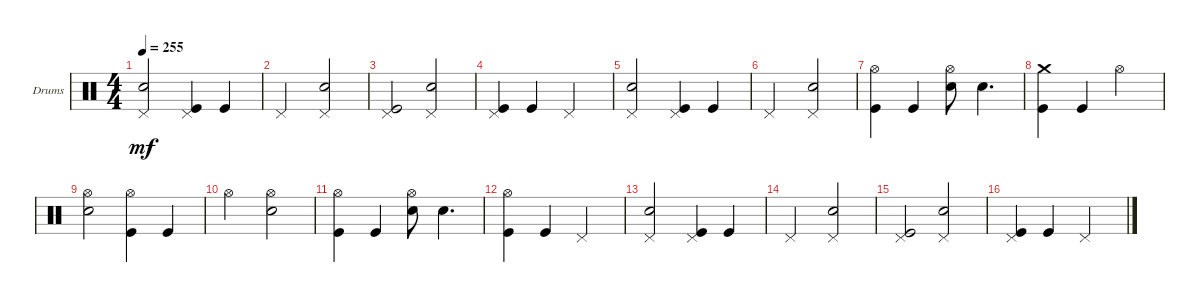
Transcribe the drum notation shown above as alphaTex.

\bracketExtendMode groupsimilarinstruments
\firstSystemTrackNameOrientation horizontal
\otherSystemsTrackNameOrientation horizontal
\track ("Drums" "Drums") {instrument percussion}
\staff {score}
\articulation defaults
\ts (4 4)
\tempo 255
\clef neutral
\ks c
("Snare (hit) 2" "Pedal Hi-Hat (hit)").2{dy mf} ("Kick (hit)" "Pedal Hi-Hat (hit)").4 "Kick (hit)".4 |
"Pedal Hi-Hat (hit)".2 ("Snare (hit) 2" "Pedal Hi-Hat (hit)").2 |
("Kick (hit)" "Pedal Hi-Hat (hit)").2 ("Snare (hit) 2" "Pedal Hi-Hat (hit)").2 |
("Kick (hit)" "Pedal Hi-Hat (hit)").4 "Kick (hit)".4 "Pedal Hi-Hat (hit)".2 |
("Snare (hit) 2" "Pedal Hi-Hat (hit)").2 ("Kick (hit)" "Pedal Hi-Hat (hit)").4 "Kick (hit)".4 |
"Pedal Hi-Hat (hit)".2 ("Snare (hit) 2" "Pedal Hi-Hat (hit)").2 |
("Kick (hit)" "Hi-Hat (open)").4 "Kick (hit)".4 ("Snare (hit) 2" "Hi-Hat (open)").8 "Snare (hit) 2".4{d} |
("Kick (hit)" "Crash medium (hit)").4 "Kick (hit)".4 "Hi-Hat (open)".2 |
("Snare (hit) 2" "Hi-Hat (open)").2 ("Kick (hit)" "Hi-Hat (open)").4 "Kick (hit)".4 |
"Hi-Hat (open)".2 ("Snare (hit) 2" "Hi-Hat (open)").2 |
("Kick (hit)" "Hi-Hat (open)").4 "Kick (hit)".4 ("Snare (hit) 2" "Hi-Hat (open)").8 "Snare (hit) 2".4{d} |
("Kick (hit)" "Hi-Hat (open)").4 "Kick (hit)".4 "Pedal Hi-Hat (hit)".2 |
("Snare (hit) 2" "Pedal Hi-Hat (hit)").2 ("Kick (hit)" "Pedal Hi-Hat (hit)").4 "Kick (hit)".4 |
"Pedal Hi-Hat (hit)".2 ("Snare (hit) 2" "Pedal Hi-Hat (hit)").2 |
("Kick (hit)" "Pedal Hi-Hat (hit)").2 ("Snare (hit) 2" "Pedal Hi-Hat (hit)").2 |
("Kick (hit)" "Pedal Hi-Hat (hit)").4 "Kick (hit)".4 "Pedal Hi-Hat (hit)".2
